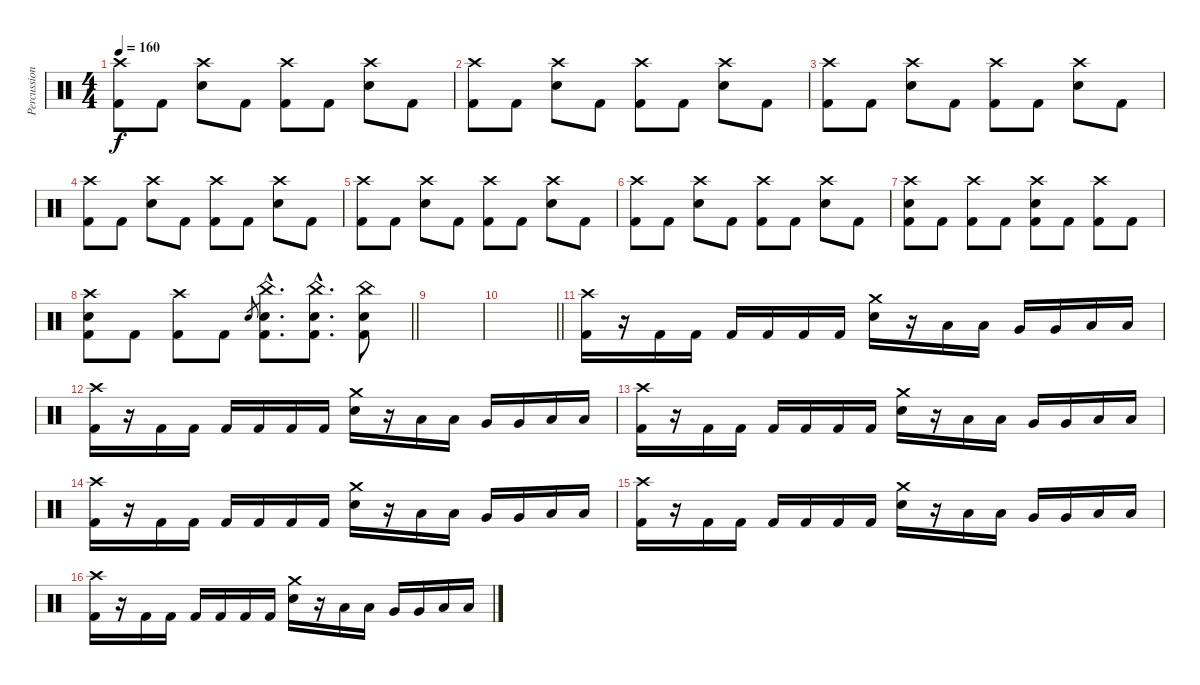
\track ("Percussion" "Percussion") {instrument percussion}
\staff {score}
\articulation defaults
\ts (4 4)
\tempo 160
\clef neutral
\ks c
("Crash high (hit)" "Kick (hit) 2").8{dy f} "Kick (hit) 2".8 ("Crash high (hit)" "Snare (hit) 2").8 "Kick (hit) 2".8 ("Crash high (hit)" "Kick (hit) 2").8 "Kick (hit) 2".8 ("Crash high (hit)" "Snare (hit) 2").8 "Kick (hit) 2".8 |
("Crash high (hit)" "Kick (hit) 2").8 "Kick (hit) 2".8 ("Crash high (hit)" "Snare (hit) 2").8 "Kick (hit) 2".8 ("Crash high (hit)" "Kick (hit) 2").8 "Kick (hit) 2".8 ("Crash high (hit)" "Snare (hit) 2").8 "Kick (hit) 2".8 |
("Crash high (hit)" "Kick (hit) 2").8 "Kick (hit) 2".8 ("Crash high (hit)" "Snare (hit) 2").8 "Kick (hit) 2".8 ("Crash high (hit)" "Kick (hit) 2").8 "Kick (hit) 2".8 ("Crash high (hit)" "Snare (hit) 2").8 "Kick (hit) 2".8 |
("Crash high (hit)" "Kick (hit) 2").8 "Kick (hit) 2".8 ("Crash high (hit)" "Snare (hit) 2").8 "Kick (hit) 2".8 ("Crash high (hit)" "Kick (hit) 2").8 "Kick (hit) 2".8 ("Crash high (hit)" "Snare (hit) 2").8 "Kick (hit) 2".8 |
("Crash high (hit)" "Kick (hit) 2").8 "Kick (hit) 2".8 ("Crash high (hit)" "Snare (hit) 2").8 "Kick (hit) 2".8 ("Crash high (hit)" "Kick (hit) 2").8 "Kick (hit) 2".8 ("Crash high (hit)" "Snare (hit) 2").8 "Kick (hit) 2".8 |
("Crash high (hit)" "Kick (hit) 2").8 "Kick (hit) 2".8 ("Crash high (hit)" "Snare (hit) 2").8 "Kick (hit) 2".8 ("Crash high (hit)" "Kick (hit) 2").8 "Kick (hit) 2".8 ("Crash high (hit)" "Snare (hit) 2").8 "Kick (hit) 2".8 |
("Crash high (hit)" "Snare (hit) 2" "Kick (hit) 2").8 "Kick (hit) 2".8 ("Crash high (hit)" "Kick (hit) 2").8 "Kick (hit) 2".8 ("Crash high (hit)" "Snare (hit) 2" "Kick (hit) 2").8 "Kick (hit) 2".8 ("Crash high (hit)" "Kick (hit) 2").8 "Kick (hit) 2".8 |
\barLineRight lightlight
("Crash high (hit)" "Snare (hit) 2" "Kick (hit) 2").8 "Kick (hit) 2".8 ("Crash high (hit)" "Kick (hit) 2").8 "Kick (hit) 2".8 "Snare (hit) 2".8{gr} ("China (hit)"{hac} "Snare (hit) 2"{hac} "Kick (hit) 2"{hac}).8{d} ("China (hit)"{hac} "Snare (hit) 2"{hac} "Kick (hit) 2"{hac}).8{d} ("China (hit)" "Snare (hit) 2" "Kick (hit) 2").8 |
\section ("" "")
|
\barLineRight lightlight
|
\section ("" "")
("Crash high (hit)" "Kick (hit) 2").16 r.16 "Kick (hit) 2".16 "Kick (hit) 2".16 "Kick (hit) 2".16 "Kick (hit) 2".16 "Kick (hit) 2".16 "Kick (hit) 2".16 ("Crash medium (hit)" "Snare (hit) 2").16 r.16 "Low Tom (hit)".16 "Low Tom (hit)".16 "Very Low Tom (hit)".16 "Very Low Tom (hit)".16 "Low Floor Tom (hit)".16 "Low Floor Tom (hit)".16 |
("Crash high (hit)" "Kick (hit) 2").16 r.16 "Kick (hit) 2".16 "Kick (hit) 2".16 "Kick (hit) 2".16 "Kick (hit) 2".16 "Kick (hit) 2".16 "Kick (hit) 2".16 ("Crash medium (hit)" "Snare (hit) 2").16 r.16 "Low Tom (hit)".16 "Low Tom (hit)".16 "Very Low Tom (hit)".16 "Very Low Tom (hit)".16 "Low Floor Tom (hit)".16 "Low Floor Tom (hit)".16 |
("Crash high (hit)" "Kick (hit) 2").16 r.16 "Kick (hit) 2".16 "Kick (hit) 2".16 "Kick (hit) 2".16 "Kick (hit) 2".16 "Kick (hit) 2".16 "Kick (hit) 2".16 ("Crash medium (hit)" "Snare (hit) 2").16 r.16 "Low Tom (hit)".16 "Low Tom (hit)".16 "Very Low Tom (hit)".16 "Very Low Tom (hit)".16 "Low Floor Tom (hit)".16 "Low Floor Tom (hit)".16 |
("Crash high (hit)" "Kick (hit) 2").16 r.16 "Kick (hit) 2".16 "Kick (hit) 2".16 "Kick (hit) 2".16 "Kick (hit) 2".16 "Kick (hit) 2".16 "Kick (hit) 2".16 ("Crash medium (hit)" "Snare (hit) 2").16 r.16 "Low Tom (hit)".16 "Low Tom (hit)".16 "Very Low Tom (hit)".16 "Very Low Tom (hit)".16 "Low Floor Tom (hit)".16 "Low Floor Tom (hit)".16 |
("Crash high (hit)" "Kick (hit) 2").16 r.16 "Kick (hit) 2".16 "Kick (hit) 2".16 "Kick (hit) 2".16 "Kick (hit) 2".16 "Kick (hit) 2".16 "Kick (hit) 2".16 ("Crash medium (hit)" "Snare (hit) 2").16 r.16 "Low Tom (hit)".16 "Low Tom (hit)".16 "Very Low Tom (hit)".16 "Very Low Tom (hit)".16 "Low Floor Tom (hit)".16 "Low Floor Tom (hit)".16 |
("Crash high (hit)" "Kick (hit) 2").16 r.16 "Kick (hit) 2".16 "Kick (hit) 2".16 "Kick (hit) 2".16 "Kick (hit) 2".16 "Kick (hit) 2".16 "Kick (hit) 2".16 ("Crash medium (hit)" "Snare (hit) 2").16 r.16 "Low Tom (hit)".16 "Low Tom (hit)".16 "Very Low Tom (hit)".16 "Very Low Tom (hit)".16 "Low Floor Tom (hit)".16 "Low Floor Tom (hit)".16
